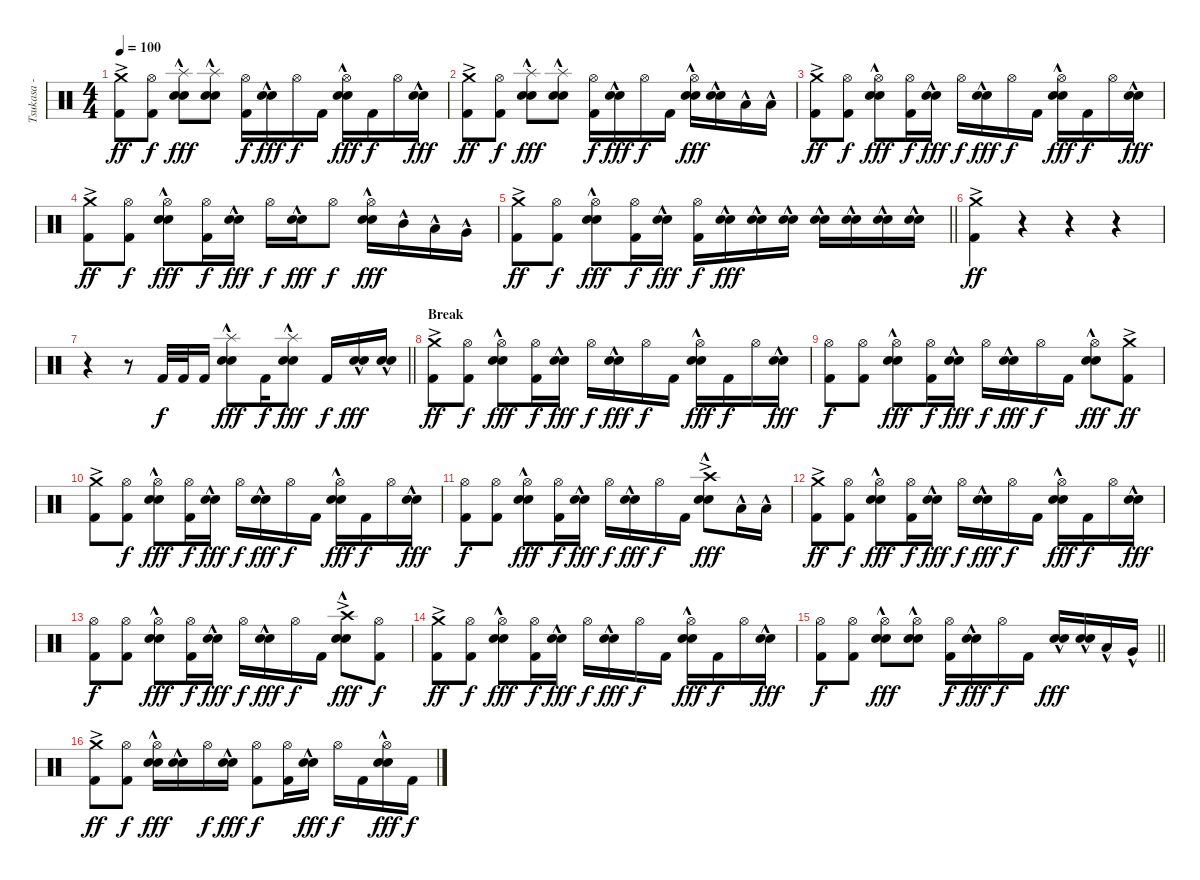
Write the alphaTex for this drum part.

\track ("Tsukasa - Drums" "Tsukasa - ") {instrument percussion}
\staff {score}
\articulation defaults
\ts (4 4)
\tempo 100
\clef neutral
\ks c
("Crash medium (hit)"{ac} "Kick (hit) 2").8{dy ff} ("Hi-Hat (open)" "Kick (hit) 2").8{dy f} ("Splash (hit)"{hac} "Electric Snare (hit)"{hac} "Snare (hit) 2"{hac}).8{dy fff} ("Splash (hit)"{hac} "Electric Snare (hit)"{hac} "Snare (hit) 2"{hac}).8 ("Hi-Hat (open)" "Kick (hit) 2").16{dy f} ("Electric Snare (hit)"{hac} "Snare (hit) 2"{hac}).16{dy fff} "Hi-Hat (open)".16{dy f} "Kick (hit) 2".16 ("Hi-Hat (open)" "Electric Snare (hit)"{hac} "Snare (hit) 2"{hac}).16{dy fff} "Kick (hit) 2".16{dy f} "Hi-Hat (open)".16 ("Electric Snare (hit)"{hac} "Snare (hit) 2"{hac}).16{dy fff} |
("Crash medium (hit)"{ac} "Kick (hit) 2").8{dy ff} ("Hi-Hat (open)" "Kick (hit) 2").8{dy f} ("Splash (hit)"{hac} "Electric Snare (hit)"{hac} "Snare (hit) 2"{hac}).8{dy fff} ("Splash (hit)"{hac} "Electric Snare (hit)"{hac} "Snare (hit) 2"{hac}).8 ("Hi-Hat (open)" "Kick (hit) 2").16{dy f} ("Electric Snare (hit)"{hac} "Snare (hit) 2"{hac}).16{dy fff} "Hi-Hat (open)".16{dy f} "Kick (hit) 2".16 ("Hi-Hat (open)" "Electric Snare (hit)"{hac} "Snare (hit) 2"{hac}).16{dy fff} ("Electric Snare (hit)"{hac} "Snare (hit) 2"{hac}).16 "Low Tom (hit)"{hac}.16 "Low Tom (hit)"{hac}.16 |
("Crash medium (hit)"{ac} "Kick (hit) 2").8{dy ff} ("Hi-Hat (open)" "Kick (hit) 2").8{dy f} ("Hi-Hat (open)" "Electric Snare (hit)"{hac} "Snare (hit) 2"{hac}).8{dy fff} ("Hi-Hat (open)" "Kick (hit) 2").16{dy f} ("Electric Snare (hit)"{hac} "Snare (hit) 2"{hac}).16{dy fff} "Hi-Hat (open)".16{dy f} ("Electric Snare (hit)"{hac} "Snare (hit) 2"{hac}).16{dy fff} "Hi-Hat (open)".16{dy f} "Kick (hit) 2".16 ("Hi-Hat (open)" "Electric Snare (hit)"{hac} "Snare (hit) 2"{hac}).16{dy fff} "Kick (hit) 2".16{dy f} "Hi-Hat (open)".16 ("Electric Snare (hit)"{hac} "Snare (hit) 2"{hac}).16{dy fff} |
("Crash medium (hit)"{ac} "Kick (hit) 2").8{dy ff} ("Hi-Hat (open)" "Kick (hit) 2").8{dy f} ("Hi-Hat (open)" "Electric Snare (hit)"{hac} "Snare (hit) 2"{hac}).8{dy fff} ("Hi-Hat (open)" "Kick (hit) 2").16{dy f} ("Electric Snare (hit)"{hac} "Snare (hit) 2"{hac}).16{dy fff} "Hi-Hat (open)".16{dy f} ("Electric Snare (hit)"{hac} "Snare (hit) 2"{hac}).16{dy fff} "Hi-Hat (open)".8{dy f} ("Hi-Hat (open)" "Electric Snare (hit)"{hac} "Snare (hit) 2"{hac}).16{dy fff} "Mid Tom (hit)"{hac}.16 "Low Tom (hit)"{hac}.16 "Very Low Tom (hit)"{hac}.16 |
\barLineRight lightlight
("Crash medium (hit)"{ac} "Kick (hit) 2").8{dy ff} ("Hi-Hat (open)" "Kick (hit) 2").8{dy f} ("Hi-Hat (open)" "Electric Snare (hit)"{hac} "Snare (hit) 2"{hac}).8{dy fff} ("Hi-Hat (open)" "Kick (hit) 2").16{dy f} ("Electric Snare (hit)"{hac} "Snare (hit) 2"{hac}).16{dy fff} ("Hi-Hat (open)" "Kick (hit) 2").16{dy f} ("Electric Snare (hit)"{hac} "Snare (hit) 2"{hac}).16{dy fff} ("Electric Snare (hit)"{hac} "Snare (hit) 2"{hac}).16 ("Electric Snare (hit)"{hac} "Snare (hit) 2"{hac}).16 ("Electric Snare (hit)"{hac} "Snare (hit) 2"{hac}).16 ("Electric Snare (hit)"{hac} "Snare (hit) 2"{hac}).16 ("Electric Snare (hit)"{hac} "Snare (hit) 2"{hac}).16 ("Electric Snare (hit)"{hac} "Snare (hit) 2"{hac}).16 |
("Crash medium (hit)"{ac} "Kick (hit) 2").4{dy ff} r.4 r.4 r.4 |
\barLineRight lightlight
r.4 r.8 "Kick (hit) 2".32{dy f} "Kick (hit) 2".32 "Kick (hit) 2".16 ("Splash (hit)"{hac} "Electric Snare (hit)"{hac} "Snare (hit) 2"{hac}).8{dy fff} "Kick (hit) 2".16{dy f} ("Splash (hit)"{hac} "Electric Snare (hit)"{hac} "Snare (hit) 2"{hac}).8{dy fff} "Kick (hit) 2".16{dy f} ("Electric Snare (hit)"{hac} "Snare (hit) 2"{hac}).16{dy fff} ("Electric Snare (hit)"{hac} "Snare (hit) 2"{hac}).16 |
\section ("" "Break")
("Crash medium (hit)"{ac} "Kick (hit) 2").8{dy ff} ("Hi-Hat (open)" "Kick (hit) 2").8{dy f} ("Hi-Hat (open)" "Electric Snare (hit)"{hac} "Snare (hit) 2"{hac}).8{dy fff} ("Hi-Hat (open)" "Kick (hit) 2").16{dy f} ("Electric Snare (hit)"{hac} "Snare (hit) 2"{hac}).16{dy fff} "Hi-Hat (open)".16{dy f} ("Electric Snare (hit)"{hac} "Snare (hit) 2"{hac}).16{dy fff} "Hi-Hat (open)".16{dy f} "Kick (hit) 2".16 ("Hi-Hat (open)" "Electric Snare (hit)"{hac} "Snare (hit) 2"{hac}).16{dy fff} "Kick (hit) 2".16{dy f} "Hi-Hat (open)".16 ("Electric Snare (hit)"{hac} "Snare (hit) 2"{hac}).16{dy fff} |
("Hi-Hat (open)" "Kick (hit) 2").8{dy f} ("Hi-Hat (open)" "Kick (hit) 2").8 ("Hi-Hat (open)" "Electric Snare (hit)"{hac} "Snare (hit) 2"{hac}).8{dy fff} ("Hi-Hat (open)" "Kick (hit) 2").16{dy f} ("Electric Snare (hit)"{hac} "Snare (hit) 2"{hac}).16{dy fff} "Hi-Hat (open)".16{dy f} ("Electric Snare (hit)"{hac} "Snare (hit) 2"{hac}).16{dy fff} "Hi-Hat (open)".16{dy f} "Kick (hit) 2".16 ("Hi-Hat (open)" "Electric Snare (hit)"{hac} "Snare (hit) 2"{hac}).8{dy fff} ("Crash medium (hit)"{ac} "Kick (hit) 2").8{dy ff} |
("Crash medium (hit)"{ac} "Kick (hit) 2").8 ("Hi-Hat (open)" "Kick (hit) 2").8{dy f} ("Hi-Hat (open)" "Electric Snare (hit)"{hac} "Snare (hit) 2"{hac}).8{dy fff} ("Hi-Hat (open)" "Kick (hit) 2").16{dy f} ("Electric Snare (hit)"{hac} "Snare (hit) 2"{hac}).16{dy fff} "Hi-Hat (open)".16{dy f} ("Electric Snare (hit)"{hac} "Snare (hit) 2"{hac}).16{dy fff} "Hi-Hat (open)".16{dy f} "Kick (hit) 2".16 ("Hi-Hat (open)" "Electric Snare (hit)"{hac} "Snare (hit) 2"{hac}).16{dy fff} "Kick (hit) 2".16{dy f} "Hi-Hat (open)".16 ("Electric Snare (hit)"{hac} "Snare (hit) 2"{hac}).16{dy fff} |
("Hi-Hat (open)" "Kick (hit) 2").8{dy f} ("Hi-Hat (open)" "Kick (hit) 2").8 ("Hi-Hat (open)" "Electric Snare (hit)"{hac} "Snare (hit) 2"{hac}).8{dy fff} ("Hi-Hat (open)" "Kick (hit) 2").16{dy f} ("Electric Snare (hit)"{hac} "Snare (hit) 2"{hac}).16{dy fff} "Hi-Hat (open)".16{dy f} ("Electric Snare (hit)"{hac} "Snare (hit) 2"{hac}).16{dy fff} "Hi-Hat (open)".16{dy f} "Kick (hit) 2".16 ("Crash high (hit)"{ac} "Electric Snare (hit)"{hac} "Snare (hit) 2"{hac}).8{dy fff} "Low Tom (hit)"{hac}.16 "Low Tom (hit)"{hac}.16 |
("Crash medium (hit)"{ac} "Kick (hit) 2").8{dy ff} ("Hi-Hat (open)" "Kick (hit) 2").8{dy f} ("Hi-Hat (open)" "Electric Snare (hit)"{hac} "Snare (hit) 2"{hac}).8{dy fff} ("Hi-Hat (open)" "Kick (hit) 2").16{dy f} ("Electric Snare (hit)"{hac} "Snare (hit) 2"{hac}).16{dy fff} "Hi-Hat (open)".16{dy f} ("Electric Snare (hit)"{hac} "Snare (hit) 2"{hac}).16{dy fff} "Hi-Hat (open)".16{dy f} "Kick (hit) 2".16 ("Hi-Hat (open)" "Electric Snare (hit)"{hac} "Snare (hit) 2"{hac}).16{dy fff} "Kick (hit) 2".16{dy f} "Hi-Hat (open)".16 ("Electric Snare (hit)"{hac} "Snare (hit) 2"{hac}).16{dy fff} |
("Hi-Hat (open)" "Kick (hit) 2").8{dy f} ("Hi-Hat (open)" "Kick (hit) 2").8 ("Hi-Hat (open)" "Electric Snare (hit)"{hac} "Snare (hit) 2"{hac}).8{dy fff} ("Hi-Hat (open)" "Kick (hit) 2").16{dy f} ("Electric Snare (hit)"{hac} "Snare (hit) 2"{hac}).16{dy fff} "Hi-Hat (open)".16{dy f} ("Electric Snare (hit)"{hac} "Snare (hit) 2"{hac}).16{dy fff} "Hi-Hat (open)".16{dy f} "Kick (hit) 2".16 ("Crash high (hit)"{ac} "Electric Snare (hit)"{hac} "Snare (hit) 2"{hac}).8{dy fff} ("Hi-Hat (open)" "Kick (hit) 2").8{dy f} |
("Crash medium (hit)"{ac} "Kick (hit) 2").8{dy ff} ("Hi-Hat (open)" "Kick (hit) 2").8{dy f} ("Hi-Hat (open)" "Electric Snare (hit)"{hac} "Snare (hit) 2"{hac}).8{dy fff} ("Hi-Hat (open)" "Kick (hit) 2").16{dy f} ("Electric Snare (hit)"{hac} "Snare (hit) 2"{hac}).16{dy fff} "Hi-Hat (open)".16{dy f} ("Electric Snare (hit)"{hac} "Snare (hit) 2"{hac}).16{dy fff} "Hi-Hat (open)".16{dy f} "Kick (hit) 2".16 ("Hi-Hat (open)" "Electric Snare (hit)"{hac} "Snare (hit) 2"{hac}).16{dy fff} "Kick (hit) 2".16{dy f} "Hi-Hat (open)".16 ("Electric Snare (hit)"{hac} "Snare (hit) 2"{hac}).16{dy fff} |
\barLineRight lightlight
("Hi-Hat (open)" "Kick (hit) 2").8{dy f} ("Hi-Hat (open)" "Kick (hit) 2").8 ("Hi-Hat (open)" "Electric Snare (hit)"{hac} "Snare (hit) 2"{hac}).8{dy fff} ("Hi-Hat (open)" "Electric Snare (hit)"{hac} "Snare (hit) 2"{hac}).8 ("Hi-Hat (open)" "Kick (hit) 2").16{dy f} ("Electric Snare (hit)"{hac} "Snare (hit) 2"{hac}).16{dy fff} "Hi-Hat (open)".16{dy f} "Kick (hit) 2".16 ("Electric Snare (hit)"{hac} "Snare (hit) 2"{hac}).16{dy fff} ("Electric Snare (hit)"{hac} "Snare (hit) 2"{hac}).16 "Low Tom (hit)"{hac}.16 "Very Low Tom (hit)"{hac}.16 |
("Crash medium (hit)"{ac} "Kick (hit) 2").8{dy ff} ("Hi-Hat (open)" "Kick (hit) 2").8{dy f} ("Hi-Hat (open)" "Electric Snare (hit)"{hac} "Snare (hit) 2"{hac}).16{dy fff} ("Electric Snare (hit)"{hac} "Snare (hit) 2"{hac}).16 "Hi-Hat (open)".16{dy f} ("Electric Snare (hit)"{hac} "Snare (hit) 2"{hac}).16{dy fff} ("Hi-Hat (open)" "Kick (hit) 2").8{dy f} ("Hi-Hat (open)" "Kick (hit) 2").16 ("Electric Snare (hit)"{hac} "Snare (hit) 2"{hac}).16{dy fff} "Hi-Hat (open)".16{dy f} "Kick (hit) 2".16 ("Hi-Hat (open)" "Electric Snare (hit)"{hac} "Snare (hit) 2"{hac}).16{dy fff} "Kick (hit) 2".16{dy f}
